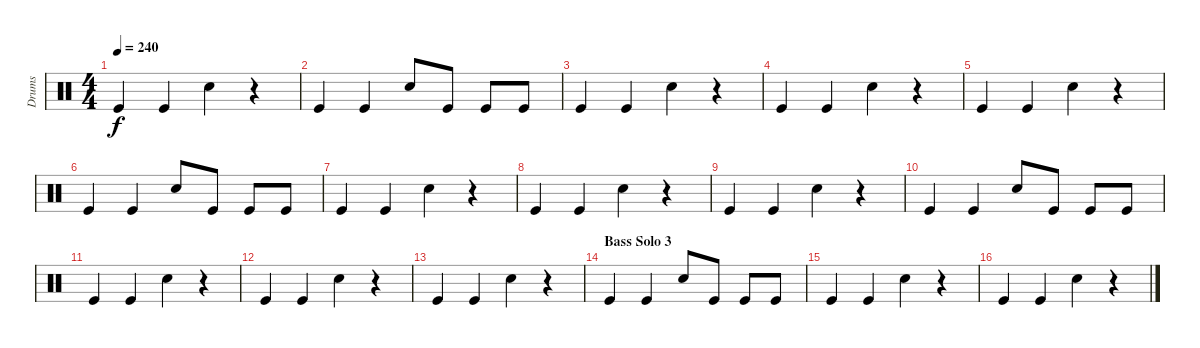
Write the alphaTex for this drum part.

\track ("Drums" "Drums") {instrument percussion}
\staff {score}
\articulation defaults
\ts (4 4)
\tempo 240
\clef neutral
\ks c "Kick (hit)".4{dy f} "Kick (hit)".4 "Snare (hit) 2".4
r.4 |
"Kick (hit)".4 "Kick (hit)".4 "Snare (hit) 2".8 "Kick (hit)".8 "Kick (hit)".8 "Kick (hit)".8 |
"Kick (hit)".4 "Kick (hit)".4 "Snare (hit) 2".4 r.4 |
"Kick (hit)".4 "Kick (hit)".4 "Snare (hit) 2".4 r.4 |
"Kick (hit)".4 "Kick (hit)".4 "Snare (hit) 2".4 r.4 |
"Kick (hit)".4 "Kick (hit)".4 "Snare (hit) 2".8 "Kick (hit)".8 "Kick (hit)".8 "Kick (hit)".8 |
"Kick (hit)".4 "Kick (hit)".4 "Snare (hit) 2".4 r.4 |
"Kick (hit)".4 "Kick (hit)".4 "Snare (hit) 2".4 r.4 |
"Kick (hit)".4 "Kick (hit)".4 "Snare (hit) 2".4 r.4 |
"Kick (hit)".4 "Kick (hit)".4 "Snare (hit) 2".8 "Kick (hit)".8 "Kick (hit)".8 "Kick (hit)".8 |
"Kick (hit)".4 "Kick (hit)".4 "Snare (hit) 2".4 r.4 |
"Kick (hit)".4 "Kick (hit)".4 "Snare (hit) 2".4 r.4 |
"Kick (hit)".4 "Kick (hit)".4 "Snare (hit) 2".4 r.4 |
\section ("" "Bass Solo 3")
"Kick (hit)".4 "Kick (hit)".4 "Snare (hit) 2".8 "Kick (hit)".8 "Kick (hit)".8 "Kick (hit)".8 |
"Kick (hit)".4 "Kick (hit)".4 "Snare (hit) 2".4 r.4 |
"Kick (hit)".4 "Kick (hit)".4 "Snare (hit) 2".4 r.4
